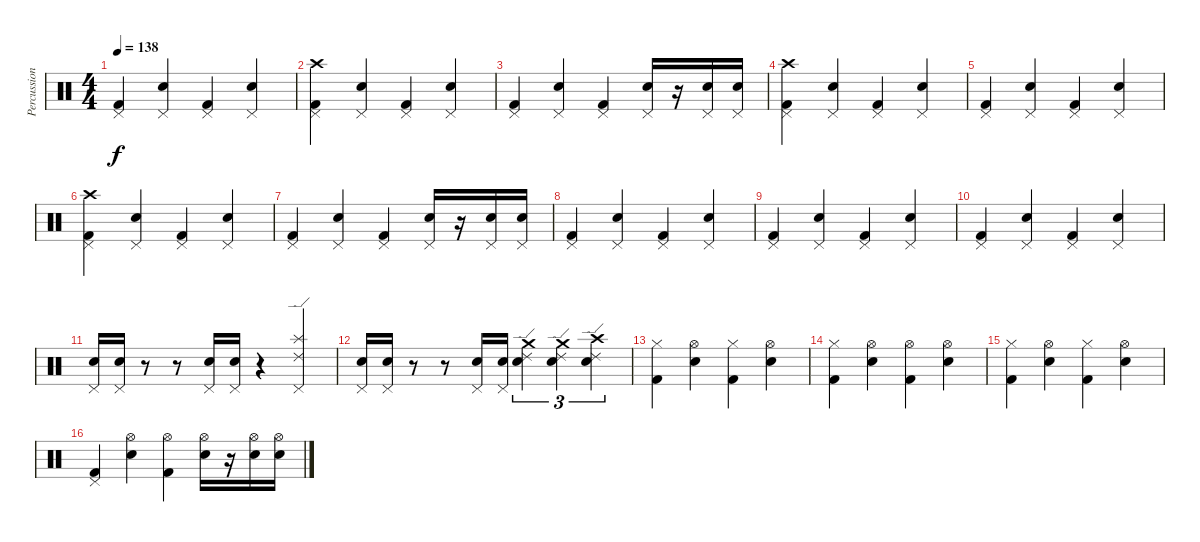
\track ("Percussion" "Percussion") {instrument percussion}
\staff {score}
\articulation defaults
\ts (4 4)
\tempo 138
\clef neutral
\ks c
("Pedal Hi-Hat (hit)" "Kick (hit) 2").4{dy f} ("Pedal Hi-Hat (hit)" "Snare (hit) 2").4 ("Pedal Hi-Hat (hit)" "Kick (hit) 2").4 ("Pedal Hi-Hat (hit)" "Snare (hit) 2").4 |
("Pedal Hi-Hat (hit)" "Crash high (hit)" "Kick (hit) 2").4 ("Pedal Hi-Hat (hit)" "Snare (hit) 2").4 ("Pedal Hi-Hat (hit)" "Kick (hit) 2").4 ("Pedal Hi-Hat (hit)" "Snare (hit) 2").4 |
("Pedal Hi-Hat (hit)" "Kick (hit) 2").4 ("Pedal Hi-Hat (hit)" "Snare (hit) 2").4 ("Pedal Hi-Hat (hit)" "Kick (hit) 2").4 ("Pedal Hi-Hat (hit)" "Snare (hit) 2").16 r.16 ("Pedal Hi-Hat (hit)" "Snare (hit) 2").16 ("Pedal Hi-Hat (hit)" "Snare (hit) 2").16 |
("Pedal Hi-Hat (hit)" "Crash high (hit)" "Kick (hit) 2").4 ("Pedal Hi-Hat (hit)" "Snare (hit) 2").4 ("Pedal Hi-Hat (hit)" "Kick (hit) 2").4 ("Pedal Hi-Hat (hit)" "Snare (hit) 2").4 |
("Pedal Hi-Hat (hit)" "Kick (hit) 2").4 ("Pedal Hi-Hat (hit)" "Snare (hit) 2").4 ("Pedal Hi-Hat (hit)" "Kick (hit) 2").4 ("Pedal Hi-Hat (hit)" "Snare (hit) 2").4 |
("Pedal Hi-Hat (hit)" "Crash high (hit)" "Kick (hit) 2").4 ("Pedal Hi-Hat (hit)" "Snare (hit) 2").4 ("Pedal Hi-Hat (hit)" "Kick (hit) 2").4 ("Pedal Hi-Hat (hit)" "Snare (hit) 2").4 |
("Pedal Hi-Hat (hit)" "Kick (hit) 2").4 ("Pedal Hi-Hat (hit)" "Snare (hit) 2").4 ("Pedal Hi-Hat (hit)" "Kick (hit) 2").4 ("Pedal Hi-Hat (hit)" "Snare (hit) 2").16 r.16 ("Pedal Hi-Hat (hit)" "Snare (hit) 2").16 ("Pedal Hi-Hat (hit)" "Snare (hit) 2").16 |
("Pedal Hi-Hat (hit)" "Kick (hit) 2").4 ("Pedal Hi-Hat (hit)" "Snare (hit) 2").4 ("Pedal Hi-Hat (hit)" "Kick (hit) 2").4 ("Pedal Hi-Hat (hit)" "Snare (hit) 2").4 |
("Pedal Hi-Hat (hit)" "Kick (hit) 2").4 ("Pedal Hi-Hat (hit)" "Snare (hit) 2").4 ("Pedal Hi-Hat (hit)" "Kick (hit) 2").4 ("Pedal Hi-Hat (hit)" "Snare (hit) 2").4 |
("Pedal Hi-Hat (hit)" "Kick (hit) 2").4 ("Pedal Hi-Hat (hit)" "Snare (hit) 2").4 ("Pedal Hi-Hat (hit)" "Kick (hit) 2").4 ("Pedal Hi-Hat (hit)" "Snare (hit) 2").4 |
("Pedal Hi-Hat (hit)" "Snare (hit) 2").16 ("Pedal Hi-Hat (hit)" "Snare (hit) 2").16 r.8 r.8 ("Pedal Hi-Hat (hit)" "Snare (hit) 2").16 ("Pedal Hi-Hat (hit)" "Snare (hit) 2").16 r.4 ("Pedal Hi-Hat (hit)" "Splash (hit)" "Ride (edge) 2").4 |
("Pedal Hi-Hat (hit)" "Snare (hit) 2").16 ("Pedal Hi-Hat (hit)" "Snare (hit) 2").16 r.8 r.8 ("Pedal Hi-Hat (hit)" "Snare (hit) 2").16 ("Pedal Hi-Hat (hit)" "Snare (hit) 2").16 ("Crash medium (hit)" "Snare (hit) 2" "Ride (edge) 2").4{tu (3 2)} ("Crash medium (hit)" "Snare (hit) 2" "Ride (edge) 2").4{tu (3 2)} ("Crash high (hit)" "Snare (hit) 2" "Ride (edge) 2").4{tu (3 2)} |
("Hi-Hat (closed)" "Kick (hit) 2").4 ("Hi-Hat (open)" "Snare (hit) 2").4 ("Hi-Hat (closed)" "Kick (hit) 2").4 ("Hi-Hat (open)" "Snare (hit) 2").4 |
("Hi-Hat (closed)" "Kick (hit) 2").4 ("Hi-Hat (open)" "Snare (hit) 2").4 ("Hi-Hat (open)" "Kick (hit) 2").4 ("Hi-Hat (open)" "Snare (hit) 2").4 |
("Hi-Hat (closed)" "Kick (hit) 2").4 ("Hi-Hat (open)" "Snare (hit) 2").4 ("Hi-Hat (closed)" "Kick (hit) 2").4 ("Hi-Hat (open)" "Snare (hit) 2").4 |
("Pedal Hi-Hat (hit)" "Kick (hit) 2").4 ("Hi-Hat (open)" "Snare (hit) 2").4 ("Hi-Hat (open)" "Kick (hit) 2").4 ("Hi-Hat (open)" "Snare (hit) 2").16 r.16 ("Hi-Hat (open)" "Snare (hit) 2").16 ("Hi-Hat (open)" "Snare (hit) 2").16
